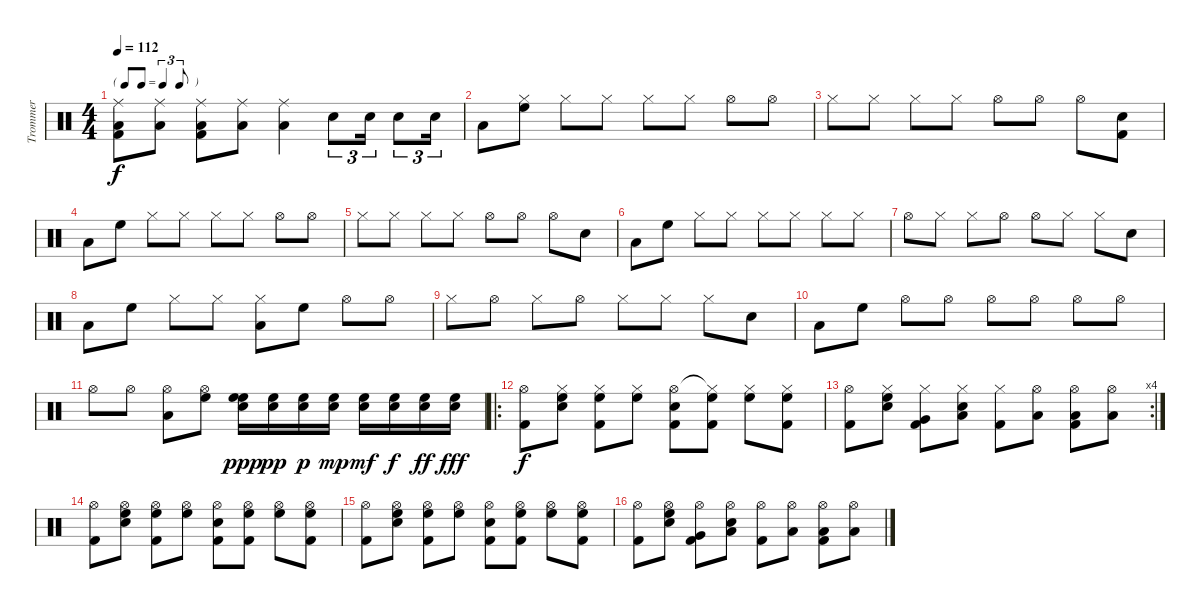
\track ("Trommer" "Trommer") {instrument percussion}
\staff {score}
\articulation defaults
\ts (4 4)
\tf triplet8th
\tempo 112
\clef neutral
\ks c
("Ride (middle)" "Low Floor Tom (hit)" "Kick (hit) 2").8{dy f} ("Ride (middle)" "Low Floor Tom (hit)").8 ("Ride (middle)" "Low Floor Tom (hit)" "Kick (hit) 2").8 ("Ride (middle)" "Low Floor Tom (hit)").8 ("Ride (middle)" "Low Floor Tom (hit)").4 "Snare (hit) 2".8{tu (3 2)} "Snare (hit) 2".16{tu (3 2)} "Snare (hit) 2".8{tu (3 2)} "Snare (hit) 2".16{tu (3 2)} |
"Low Tom (hit)".8 ("Hi-Hat (closed)" "High Floor Tom (hit)").8 "Hi-Hat (closed)".8 "Hi-Hat (closed)".8 "Hi-Hat (closed)".8 "Hi-Hat (closed)".8 "Hi-Hat (open)".8 "Hi-Hat (open)".8 |
"Hi-Hat (closed)".8 "Hi-Hat (closed)".8 "Hi-Hat (closed)".8 "Hi-Hat (closed)".8 "Hi-Hat (open)".8 "Hi-Hat (open)".8 "Hi-Hat (open)".8 ("Snare (hit) 2" "Kick (hit) 2").8 |
"Low Tom (hit)".8 "High Floor Tom (hit)".8 "Hi-Hat (closed)".8 "Hi-Hat (closed)".8 "Hi-Hat (closed)".8 "Hi-Hat (closed)".8 "Hi-Hat (open)".8 "Hi-Hat (open)".8 |
"Hi-Hat (closed)".8 "Hi-Hat (closed)".8 "Hi-Hat (closed)".8 "Hi-Hat (closed)".8 "Hi-Hat (open)".8 "Hi-Hat (open)".8 "Hi-Hat (open)".8 "Snare (hit) 2".8 |
"Low Tom (hit)".8 "High Floor Tom (hit)".8 "Hi-Hat (closed)".8 "Hi-Hat (closed)".8 "Hi-Hat (closed)".8 "Hi-Hat (closed)".8 "Hi-Hat (closed)".8 "Hi-Hat (closed)".8 |
"Hi-Hat (open)".8 "Hi-Hat (closed)".8 "Hi-Hat (closed)".8 "Hi-Hat (open)".8 "Hi-Hat (open)".8 "Hi-Hat (closed)".8 "Hi-Hat (closed)".8 "Snare (hit) 2".8 |
"Low Tom (hit)".8 "High Floor Tom (hit)".8 "Hi-Hat (closed)".8 "Hi-Hat (closed)".8 ("Hi-Hat (closed)" "Low Tom (hit)").8 "High Floor Tom (hit)".8 "Hi-Hat (open)".8 "Hi-Hat (open)".8 |
"Hi-Hat (closed)".8 "Hi-Hat (open)".8 "Hi-Hat (closed)".8 "Hi-Hat (open)".8 "Hi-Hat (closed)".8 "Hi-Hat (closed)".8 "Hi-Hat (closed)".8 "Snare (hit) 2".8 |
"Low Tom (hit)".8 "High Floor Tom (hit)".8 "Hi-Hat (open)".8 "Hi-Hat (open)".8 "Hi-Hat (open)".8 "Hi-Hat (open)".8 "Hi-Hat (open)".8 "Hi-Hat (open)".8 |
"Hi-Hat (open)".8 "Hi-Hat (open)".8 ("Hi-Hat (open)" "Low Tom (hit)").8 ("Hi-Hat (open)" "High Floor Tom (hit)").8 ("Snare (hit) 2" "High Floor Tom (hit)" "High Floor Tom (hit)").16{dy ppp} ("Snare (hit) 2" "High Floor Tom (hit)").16{dy pp} ("Snare (hit) 2" "High Floor Tom (hit)").16{dy p} ("Snare (hit) 2" "High Floor Tom (hit)").16{dy mp} ("Snare (hit) 2" "High Floor Tom (hit)").16{dy mf} ("Snare (hit) 2" "High Floor Tom (hit)").16{dy f} ("Snare (hit) 2" "High Floor Tom (hit)").16{dy ff} ("Snare (hit) 2" "High Floor Tom (hit)").16{dy fff} |
\ro
("Hi-Hat (open)" "Kick (hit) 2").8{dy f} ("Hi-Hat (closed)" "Snare (hit) 2" "High Floor Tom (hit)").8 ("Hi-Hat (closed)" "High Floor Tom (hit)" "Kick (hit) 2").8 ("Hi-Hat (closed)" "High Floor Tom (hit)").8 ("Hi-Hat (open)" "Snare (hit) 2" "Kick (hit) 2").8 ("Hi-Hat (closed)"{t} "High Floor Tom (hit)" "Kick (hit) 2").8 ("Hi-Hat (closed)" "High Floor Tom (hit)").8 ("Hi-Hat (closed)" "High Floor Tom (hit)" "Kick (hit) 2").8 |
\rc 4
("Hi-Hat (open)" "Kick (hit) 2").8 ("Hi-Hat (closed)" "High Floor Tom (hit)" "Snare (hit) 2").8 ("Hi-Hat (closed)" "Very Low Tom (hit)" "Kick (hit) 2").8 ("Hi-Hat (closed)" "Snare (hit) 2" "Low Tom (hit)").8 ("Hi-Hat (closed)" "Kick (hit) 2").8 ("Hi-Hat (open)" "Low Floor Tom (hit)").8 ("Hi-Hat (open)" "Low Floor Tom (hit)" "Kick (hit) 2").8 ("Hi-Hat (open)" "Low Floor Tom (hit)").8 |
("Hi-Hat (open)" "Kick (hit) 2").8 ("Hi-Hat (open)" "Snare (hit) 2" "High Floor Tom (hit)").8 ("Hi-Hat (open)" "High Floor Tom (hit)" "Kick (hit) 2").8 ("Hi-Hat (open)" "High Floor Tom (hit)").8 ("Hi-Hat (open)" "Snare (hit) 2" "Kick (hit) 2").8 ("Hi-Hat (open)" "High Floor Tom (hit)" "Kick (hit) 2").8 ("Hi-Hat (open)" "High Floor Tom (hit)").8 ("Hi-Hat (open)" "High Floor Tom (hit)" "Kick (hit) 2").8 |
("Hi-Hat (open)" "Kick (hit) 2").8 ("Hi-Hat (open)" "Snare (hit) 2" "High Floor Tom (hit)").8 ("Hi-Hat (open)" "High Floor Tom (hit)" "Kick (hit) 2").8 ("Hi-Hat (open)" "High Floor Tom (hit)").8 ("Hi-Hat (open)" "Snare (hit) 2" "Kick (hit) 2").8 ("Hi-Hat (open)" "High Floor Tom (hit)" "Kick (hit) 2").8 ("Hi-Hat (open)" "High Floor Tom (hit)").8 ("Hi-Hat (open)" "High Floor Tom (hit)" "Kick (hit) 2").8 |
("Hi-Hat (open)" "Kick (hit) 2").8 ("Hi-Hat (open)" "High Floor Tom (hit)" "Snare (hit) 2").8 ("Hi-Hat (open)" "Very Low Tom (hit)" "Kick (hit) 2").8 ("Hi-Hat (open)" "Snare (hit) 2" "Low Tom (hit)").8 ("Hi-Hat (open)" "Kick (hit) 2").8 ("Hi-Hat (open)" "Low Floor Tom (hit)").8 ("Hi-Hat (open)" "Low Floor Tom (hit)" "Kick (hit) 2").8 ("Hi-Hat (open)" "Low Floor Tom (hit)").8
